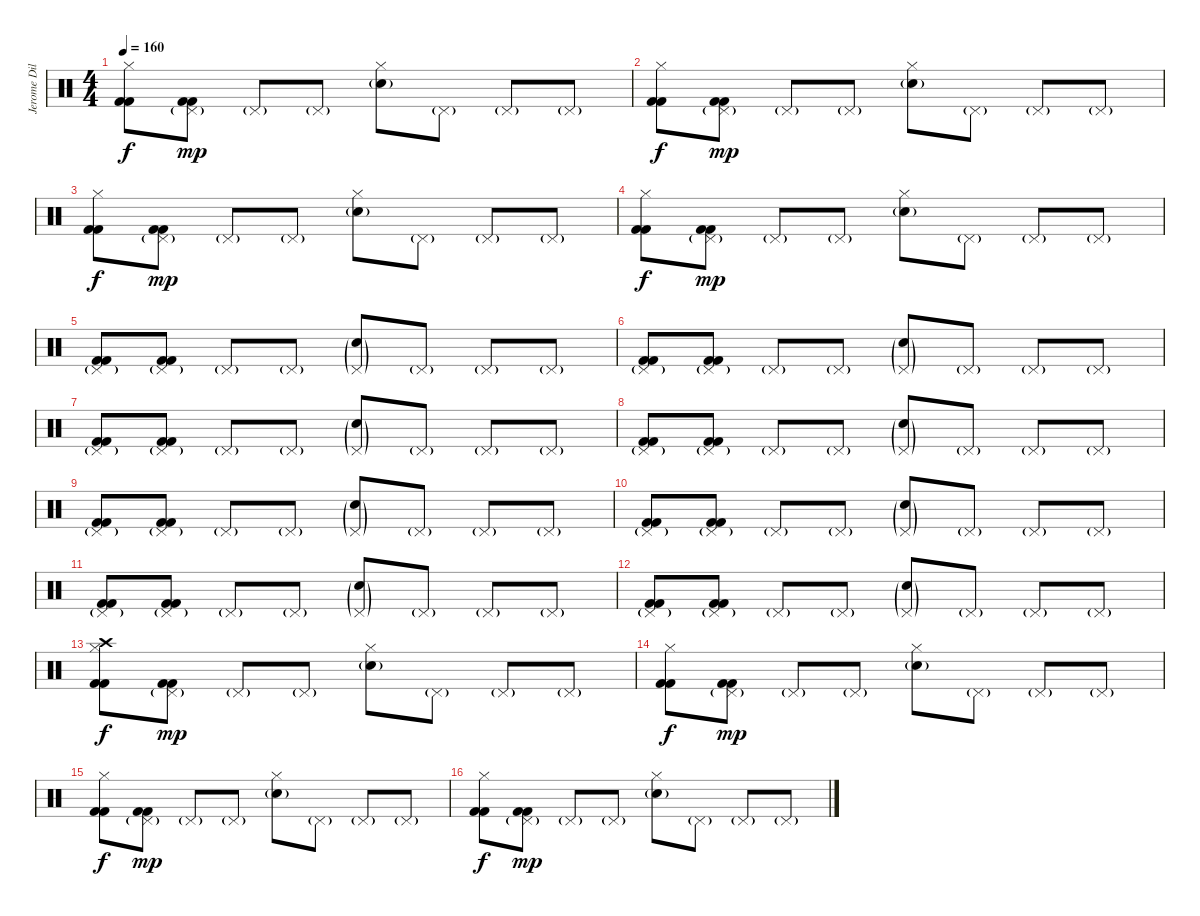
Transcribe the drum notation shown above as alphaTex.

\track ("Jerome Dillon" "Jerome Dil") {instrument percussion}
\staff {score}
\articulation defaults
\ts (4 4)
\tempo 160
\clef neutral
\ks c
("Hi-Hat (closed)" "Kick (hit) 2" "Kick (hit) 2").8{dy f} ("Pedal Hi-Hat (hit)"{g} "Kick (hit) 2" "Kick (hit) 2").8{dy mp} "Pedal Hi-Hat (hit)"{g}.8 "Pedal Hi-Hat (hit)"{g}.8 ("Hi-Hat (closed)" "Electric Snare (hit)"{g}).8 "Pedal Hi-Hat (hit)"{g}.8 "Pedal Hi-Hat (hit)"{g}.8 "Pedal Hi-Hat (hit)"{g}.8 |
("Hi-Hat (closed)" "Kick (hit) 2" "Kick (hit) 2").8{dy f} ("Pedal Hi-Hat (hit)"{g} "Kick (hit) 2" "Kick (hit) 2").8{dy mp} "Pedal Hi-Hat (hit)"{g}.8 "Pedal Hi-Hat (hit)"{g}.8 ("Hi-Hat (closed)" "Electric Snare (hit)"{g}).8 "Pedal Hi-Hat (hit)"{g}.8 "Pedal Hi-Hat (hit)"{g}.8 "Pedal Hi-Hat (hit)"{g}.8 |
("Hi-Hat (closed)" "Kick (hit) 2" "Kick (hit) 2").8{dy f} ("Pedal Hi-Hat (hit)"{g} "Kick (hit) 2" "Kick (hit) 2").8{dy mp} "Pedal Hi-Hat (hit)"{g}.8 "Pedal Hi-Hat (hit)"{g}.8 ("Hi-Hat (closed)" "Electric Snare (hit)"{g}).8 "Pedal Hi-Hat (hit)"{g}.8 "Pedal Hi-Hat (hit)"{g}.8 "Pedal Hi-Hat (hit)"{g}.8 |
("Hi-Hat (closed)" "Kick (hit) 2" "Kick (hit) 2").8{dy f} ("Pedal Hi-Hat (hit)"{g} "Kick (hit) 2" "Kick (hit) 2").8{dy mp} "Pedal Hi-Hat (hit)"{g}.8 "Pedal Hi-Hat (hit)"{g}.8 ("Hi-Hat (closed)" "Electric Snare (hit)"{g}).8 "Pedal Hi-Hat (hit)"{g}.8 "Pedal Hi-Hat (hit)"{g}.8 "Pedal Hi-Hat (hit)"{g}.8 |
("Pedal Hi-Hat (hit)"{g} "Kick (hit) 2" "Kick (hit) 2").8 ("Pedal Hi-Hat (hit)"{g} "Kick (hit) 2" "Kick (hit) 2").8 "Pedal Hi-Hat (hit)"{g}.8 "Pedal Hi-Hat (hit)"{g}.8 ("Pedal Hi-Hat (hit)"{g} "Electric Snare (hit)"{g}).8 "Pedal Hi-Hat (hit)"{g}.8 "Pedal Hi-Hat (hit)"{g}.8 "Pedal Hi-Hat (hit)"{g}.8 |
("Pedal Hi-Hat (hit)"{g} "Kick (hit) 2" "Kick (hit) 2").8 ("Pedal Hi-Hat (hit)"{g} "Kick (hit) 2" "Kick (hit) 2").8 "Pedal Hi-Hat (hit)"{g}.8 "Pedal Hi-Hat (hit)"{g}.8 ("Pedal Hi-Hat (hit)"{g} "Electric Snare (hit)"{g}).8 "Pedal Hi-Hat (hit)"{g}.8 "Pedal Hi-Hat (hit)"{g}.8 "Pedal Hi-Hat (hit)"{g}.8 |
("Pedal Hi-Hat (hit)"{g} "Kick (hit) 2" "Kick (hit) 2").8 ("Pedal Hi-Hat (hit)"{g} "Kick (hit) 2" "Kick (hit) 2").8 "Pedal Hi-Hat (hit)"{g}.8 "Pedal Hi-Hat (hit)"{g}.8 ("Pedal Hi-Hat (hit)"{g} "Electric Snare (hit)"{g}).8 "Pedal Hi-Hat (hit)"{g}.8 "Pedal Hi-Hat (hit)"{g}.8 "Pedal Hi-Hat (hit)"{g}.8 |
("Pedal Hi-Hat (hit)"{g} "Kick (hit) 2" "Kick (hit) 2").8 ("Pedal Hi-Hat (hit)"{g} "Kick (hit) 2" "Kick (hit) 2").8 "Pedal Hi-Hat (hit)"{g}.8 "Pedal Hi-Hat (hit)"{g}.8 ("Pedal Hi-Hat (hit)"{g} "Electric Snare (hit)"{g}).8 "Pedal Hi-Hat (hit)"{g}.8 "Pedal Hi-Hat (hit)"{g}.8 "Pedal Hi-Hat (hit)"{g}.8 |
("Pedal Hi-Hat (hit)"{g} "Kick (hit) 2" "Kick (hit) 2").8 ("Pedal Hi-Hat (hit)"{g} "Kick (hit) 2" "Kick (hit) 2").8 "Pedal Hi-Hat (hit)"{g}.8 "Pedal Hi-Hat (hit)"{g}.8 ("Pedal Hi-Hat (hit)"{g} "Electric Snare (hit)"{g}).8 "Pedal Hi-Hat (hit)"{g}.8 "Pedal Hi-Hat (hit)"{g}.8 "Pedal Hi-Hat (hit)"{g}.8 |
("Pedal Hi-Hat (hit)"{g} "Kick (hit) 2" "Kick (hit) 2").8 ("Pedal Hi-Hat (hit)"{g} "Kick (hit) 2" "Kick (hit) 2").8 "Pedal Hi-Hat (hit)"{g}.8 "Pedal Hi-Hat (hit)"{g}.8 ("Pedal Hi-Hat (hit)"{g} "Electric Snare (hit)"{g}).8 "Pedal Hi-Hat (hit)"{g}.8 "Pedal Hi-Hat (hit)"{g}.8 "Pedal Hi-Hat (hit)"{g}.8 |
("Pedal Hi-Hat (hit)"{g} "Kick (hit) 2" "Kick (hit) 2").8 ("Pedal Hi-Hat (hit)"{g} "Kick (hit) 2" "Kick (hit) 2").8 "Pedal Hi-Hat (hit)"{g}.8 "Pedal Hi-Hat (hit)"{g}.8 ("Pedal Hi-Hat (hit)"{g} "Electric Snare (hit)"{g}).8 "Pedal Hi-Hat (hit)"{g}.8 "Pedal Hi-Hat (hit)"{g}.8 "Pedal Hi-Hat (hit)"{g}.8 |
("Pedal Hi-Hat (hit)"{g} "Kick (hit) 2" "Kick (hit) 2").8 ("Pedal Hi-Hat (hit)"{g} "Kick (hit) 2" "Kick (hit) 2").8 "Pedal Hi-Hat (hit)"{g}.8 "Pedal Hi-Hat (hit)"{g}.8 ("Pedal Hi-Hat (hit)"{g} "Electric Snare (hit)"{g}).8 "Pedal Hi-Hat (hit)"{g}.8 "Pedal Hi-Hat (hit)"{g}.8 "Pedal Hi-Hat (hit)"{g}.8 |
("Hi-Hat (closed)" "Crash high (hit)" "Kick (hit) 2" "Kick (hit) 2").8{dy f} ("Pedal Hi-Hat (hit)"{g} "Kick (hit) 2" "Kick (hit) 2").8{dy mp} "Pedal Hi-Hat (hit)"{g}.8 "Pedal Hi-Hat (hit)"{g}.8 ("Hi-Hat (closed)" "Electric Snare (hit)"{g}).8 "Pedal Hi-Hat (hit)"{g}.8 "Pedal Hi-Hat (hit)"{g}.8 "Pedal Hi-Hat (hit)"{g}.8 |
("Hi-Hat (closed)" "Kick (hit) 2" "Kick (hit) 2").8{dy f} ("Pedal Hi-Hat (hit)"{g} "Kick (hit) 2" "Kick (hit) 2").8{dy mp} "Pedal Hi-Hat (hit)"{g}.8 "Pedal Hi-Hat (hit)"{g}.8 ("Hi-Hat (closed)" "Electric Snare (hit)"{g}).8 "Pedal Hi-Hat (hit)"{g}.8 "Pedal Hi-Hat (hit)"{g}.8 "Pedal Hi-Hat (hit)"{g}.8 |
("Hi-Hat (closed)" "Kick (hit) 2" "Kick (hit) 2").8{dy f} ("Pedal Hi-Hat (hit)"{g} "Kick (hit) 2" "Kick (hit) 2").8{dy mp} "Pedal Hi-Hat (hit)"{g}.8 "Pedal Hi-Hat (hit)"{g}.8 ("Hi-Hat (closed)" "Electric Snare (hit)"{g}).8 "Pedal Hi-Hat (hit)"{g}.8 "Pedal Hi-Hat (hit)"{g}.8 "Pedal Hi-Hat (hit)"{g}.8 |
("Hi-Hat (closed)" "Kick (hit) 2" "Kick (hit) 2").8{dy f} ("Pedal Hi-Hat (hit)"{g} "Kick (hit) 2" "Kick (hit) 2").8{dy mp} "Pedal Hi-Hat (hit)"{g}.8 "Pedal Hi-Hat (hit)"{g}.8 ("Hi-Hat (closed)" "Electric Snare (hit)"{g}).8 "Pedal Hi-Hat (hit)"{g}.8 "Pedal Hi-Hat (hit)"{g}.8 "Pedal Hi-Hat (hit)"{g}.8
